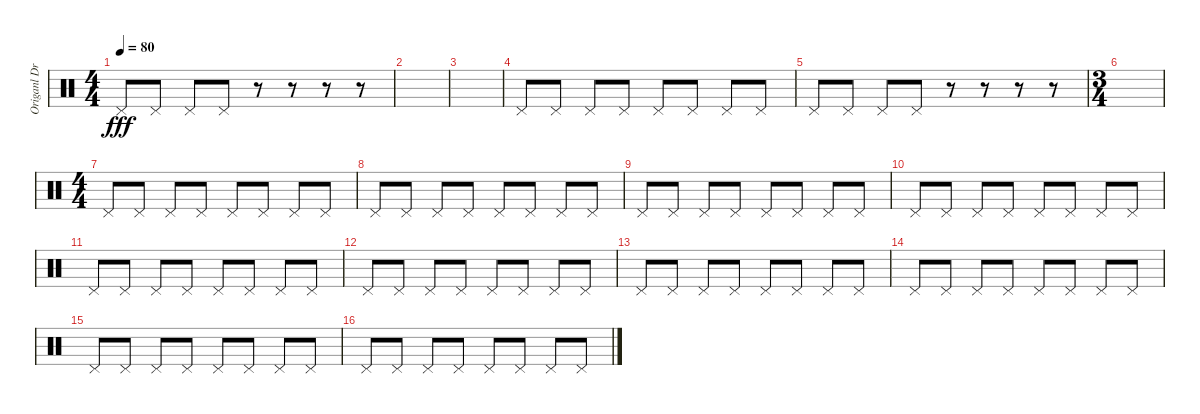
\track ("Origanl Drum Track" "Origanl Dr") {instrument percussion}
\staff {score}
\articulation defaults
\ts (4 4)
\tempo 80
\clef neutral
\ks c "Pedal Hi-Hat (hit)".8{dy fff} "Pedal Hi-Hat (hit)".8 "Pedal Hi-Hat (hit)".8 "Pedal Hi-Hat (hit)".8
r.8 r.8 r.8 r.8 |
|
|
"Pedal Hi-Hat (hit)".8 "Pedal Hi-Hat (hit)".8 "Pedal Hi-Hat (hit)".8 "Pedal Hi-Hat (hit)".8 "Pedal Hi-Hat (hit)".8 "Pedal Hi-Hat (hit)".8 "Pedal Hi-Hat (hit)".8 "Pedal Hi-Hat (hit)".8 |
"Pedal Hi-Hat (hit)".8 "Pedal Hi-Hat (hit)".8 "Pedal Hi-Hat (hit)".8 "Pedal Hi-Hat (hit)".8 r.8 r.8 r.8 r.8 |
\ts (3 4)
|
\ts (4 4)
"Pedal Hi-Hat (hit)".8 "Pedal Hi-Hat (hit)".8 "Pedal Hi-Hat (hit)".8 "Pedal Hi-Hat (hit)".8 "Pedal Hi-Hat (hit)".8 "Pedal Hi-Hat (hit)".8 "Pedal Hi-Hat (hit)".8 "Pedal Hi-Hat (hit)".8 |
"Pedal Hi-Hat (hit)".8 "Pedal Hi-Hat (hit)".8 "Pedal Hi-Hat (hit)".8 "Pedal Hi-Hat (hit)".8 "Pedal Hi-Hat (hit)".8 "Pedal Hi-Hat (hit)".8 "Pedal Hi-Hat (hit)".8 "Pedal Hi-Hat (hit)".8 |
"Pedal Hi-Hat (hit)".8 "Pedal Hi-Hat (hit)".8 "Pedal Hi-Hat (hit)".8 "Pedal Hi-Hat (hit)".8 "Pedal Hi-Hat (hit)".8 "Pedal Hi-Hat (hit)".8 "Pedal Hi-Hat (hit)".8 "Pedal Hi-Hat (hit)".8 |
"Pedal Hi-Hat (hit)".8 "Pedal Hi-Hat (hit)".8 "Pedal Hi-Hat (hit)".8 "Pedal Hi-Hat (hit)".8 "Pedal Hi-Hat (hit)".8 "Pedal Hi-Hat (hit)".8 "Pedal Hi-Hat (hit)".8 "Pedal Hi-Hat (hit)".8 |
"Pedal Hi-Hat (hit)".8 "Pedal Hi-Hat (hit)".8 "Pedal Hi-Hat (hit)".8 "Pedal Hi-Hat (hit)".8 "Pedal Hi-Hat (hit)".8 "Pedal Hi-Hat (hit)".8 "Pedal Hi-Hat (hit)".8 "Pedal Hi-Hat (hit)".8 |
"Pedal Hi-Hat (hit)".8 "Pedal Hi-Hat (hit)".8 "Pedal Hi-Hat (hit)".8 "Pedal Hi-Hat (hit)".8 "Pedal Hi-Hat (hit)".8 "Pedal Hi-Hat (hit)".8 "Pedal Hi-Hat (hit)".8 "Pedal Hi-Hat (hit)".8 |
"Pedal Hi-Hat (hit)".8 "Pedal Hi-Hat (hit)".8 "Pedal Hi-Hat (hit)".8 "Pedal Hi-Hat (hit)".8 "Pedal Hi-Hat (hit)".8 "Pedal Hi-Hat (hit)".8 "Pedal Hi-Hat (hit)".8 "Pedal Hi-Hat (hit)".8 |
"Pedal Hi-Hat (hit)".8 "Pedal Hi-Hat (hit)".8 "Pedal Hi-Hat (hit)".8 "Pedal Hi-Hat (hit)".8 "Pedal Hi-Hat (hit)".8 "Pedal Hi-Hat (hit)".8 "Pedal Hi-Hat (hit)".8 "Pedal Hi-Hat (hit)".8 |
"Pedal Hi-Hat (hit)".8 "Pedal Hi-Hat (hit)".8 "Pedal Hi-Hat (hit)".8 "Pedal Hi-Hat (hit)".8 "Pedal Hi-Hat (hit)".8 "Pedal Hi-Hat (hit)".8 "Pedal Hi-Hat (hit)".8 "Pedal Hi-Hat (hit)".8 |
"Pedal Hi-Hat (hit)".8 "Pedal Hi-Hat (hit)".8 "Pedal Hi-Hat (hit)".8 "Pedal Hi-Hat (hit)".8 "Pedal Hi-Hat (hit)".8 "Pedal Hi-Hat (hit)".8 "Pedal Hi-Hat (hit)".8 "Pedal Hi-Hat (hit)".8
